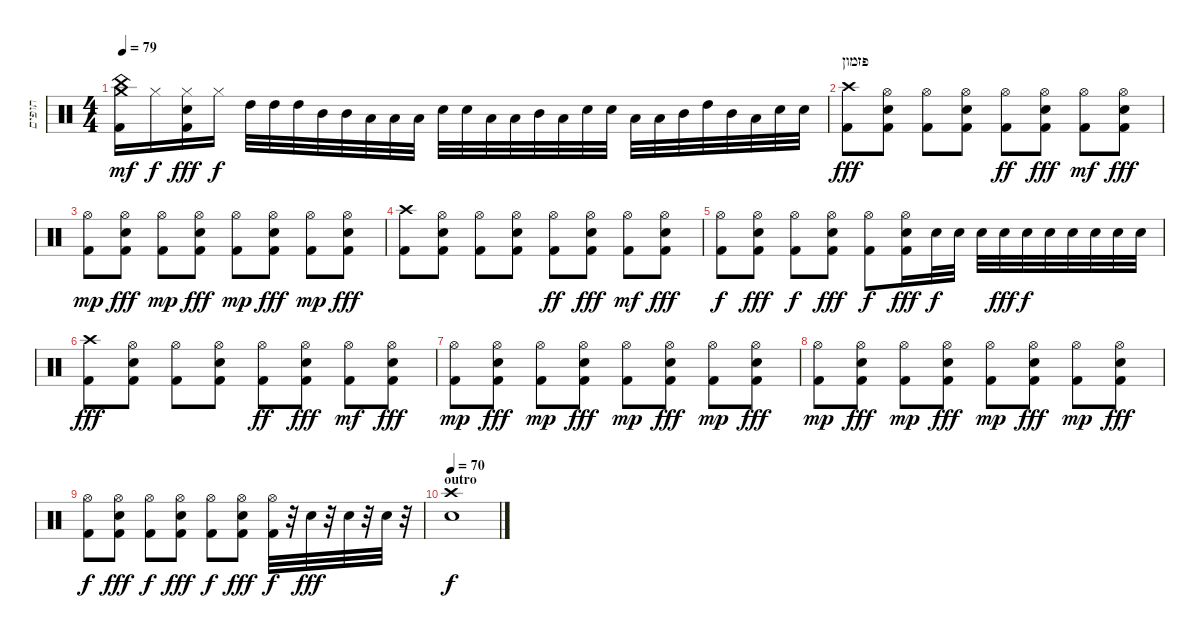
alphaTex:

\track ("תופים" "תופים") {instrument percussion}
\staff {score}
\articulation defaults
\ts (4 4)
\tempo 79
\clef neutral
\ks c
("Crash medium (hit)" "China (hit)" "Kick (hit) 2").16{dy mf} "Hi-Hat (closed)".16{dy f} ("Hi-Hat (closed)" "Snare (hit) 2" "Kick (hit) 2").16{dy fff} "Hi-Hat (closed)".16{dy f} "High Tom (hit)".32 "High Tom (hit)".32 "High Tom (hit)".32 "Mid Tom (hit)".32 "Mid Tom (hit)".32 "Low Tom (hit)".32 "Low Tom (hit)".32 "Low Tom (hit)".32 "Snare (hit) 2".32 "Snare (hit) 2".32 "Low Tom (hit)".32 "Low Tom (hit)".32 "Mid Tom (hit)".32 "Low Tom (hit)".32 "Snare (hit) 2".32 "Snare (hit) 2".32 "Low Tom (hit)".32 "Low Tom (hit)".32 "Mid Tom (hit)".32 "High Tom (hit)".32 "Mid Tom (hit)".32 "Low Tom (hit)".32 "Snare (hit) 2".32 "Snare (hit) 2".32 |
\section ("" "פזמון")
("Crash high (hit)" "Kick (hit) 2").8{dy fff} ("Hi-Hat (open)" "Snare (hit) 2" "Kick (hit) 2").8 ("Hi-Hat (open)" "Kick (hit) 2").8 ("Hi-Hat (open)" "Snare (hit) 2" "Kick (hit) 2").8 ("Hi-Hat (open)" "Kick (hit) 2").8{dy ff} ("Hi-Hat (open)" "Snare (hit) 2" "Kick (hit) 2").8{dy fff} ("Hi-Hat (open)" "Kick (hit) 2").8{dy mf} ("Hi-Hat (open)" "Snare (hit) 2" "Kick (hit) 2").8{dy fff} |
("Hi-Hat (open)" "Kick (hit) 2").8{dy mp} ("Hi-Hat (open)" "Snare (hit) 2" "Kick (hit) 2").8{dy fff} ("Hi-Hat (open)" "Kick (hit) 2").8{dy mp} ("Hi-Hat (open)" "Snare (hit) 2" "Kick (hit) 2").8{dy fff} ("Hi-Hat (open)" "Kick (hit) 2").8{dy mp} ("Hi-Hat (open)" "Snare (hit) 2" "Kick (hit) 2").8{dy fff} ("Hi-Hat (open)" "Kick (hit) 2").8{dy mp} ("Hi-Hat (open)" "Snare (hit) 2" "Kick (hit) 2").8{dy fff} |
("Crash high (hit)" "Kick (hit) 2").8 ("Hi-Hat (open)" "Snare (hit) 2" "Kick (hit) 2").8 ("Hi-Hat (open)" "Kick (hit) 2").8 ("Hi-Hat (open)" "Snare (hit) 2" "Kick (hit) 2").8 ("Hi-Hat (open)" "Kick (hit) 2").8{dy ff} ("Hi-Hat (open)" "Snare (hit) 2" "Kick (hit) 2").8{dy fff} ("Hi-Hat (open)" "Kick (hit) 2").8{dy mf} ("Hi-Hat (open)" "Snare (hit) 2" "Kick (hit) 2").8{dy fff} |
("Hi-Hat (open)" "Kick (hit) 2").8{dy f} ("Hi-Hat (open)" "Snare (hit) 2" "Kick (hit) 2").8{dy fff} ("Hi-Hat (open)" "Kick (hit) 2").8{dy f} ("Hi-Hat (open)" "Snare (hit) 2" "Kick (hit) 2").8{dy fff} ("Hi-Hat (open)" "Kick (hit) 2").8{dy f} ("Hi-Hat (open)" "Snare (hit) 2" "Kick (hit) 2").16{dy fff} "Snare (hit) 2".32{dy f} "Snare (hit) 2".32 "Snare (hit) 2".32 "Snare (hit) 2".32{dy fff} "Snare (hit) 2".32{dy f} "Snare (hit) 2".32 "Snare (hit) 2".32 "Snare (hit) 2".32 "Snare (hit) 2".32 "Snare (hit) 2".32 |
("Crash high (hit)" "Kick (hit) 2").8{dy fff} ("Hi-Hat (open)" "Snare (hit) 2" "Kick (hit) 2").8 ("Hi-Hat (open)" "Kick (hit) 2").8 ("Hi-Hat (open)" "Snare (hit) 2" "Kick (hit) 2").8 ("Hi-Hat (open)" "Kick (hit) 2").8{dy ff} ("Hi-Hat (open)" "Snare (hit) 2" "Kick (hit) 2").8{dy fff} ("Hi-Hat (open)" "Kick (hit) 2").8{dy mf} ("Hi-Hat (open)" "Snare (hit) 2" "Kick (hit) 2").8{dy fff} |
("Hi-Hat (open)" "Kick (hit) 2").8{dy mp} ("Hi-Hat (open)" "Snare (hit) 2" "Kick (hit) 2").8{dy fff} ("Hi-Hat (open)" "Kick (hit) 2").8{dy mp} ("Hi-Hat (open)" "Snare (hit) 2" "Kick (hit) 2").8{dy fff} ("Hi-Hat (open)" "Kick (hit) 2").8{dy mp} ("Hi-Hat (open)" "Snare (hit) 2" "Kick (hit) 2").8{dy fff} ("Hi-Hat (open)" "Kick (hit) 2").8{dy mp} ("Hi-Hat (open)" "Snare (hit) 2" "Kick (hit) 2").8{dy fff} |
("Hi-Hat (open)" "Kick (hit) 2").8{dy mp} ("Hi-Hat (open)" "Snare (hit) 2" "Kick (hit) 2").8{dy fff} ("Hi-Hat (open)" "Kick (hit) 2").8{dy mp} ("Hi-Hat (open)" "Snare (hit) 2" "Kick (hit) 2").8{dy fff} ("Hi-Hat (open)" "Kick (hit) 2").8{dy mp} ("Hi-Hat (open)" "Snare (hit) 2" "Kick (hit) 2").8{dy fff} ("Hi-Hat (open)" "Kick (hit) 2").8{dy mp} ("Hi-Hat (open)" "Snare (hit) 2" "Kick (hit) 2").8{dy fff} |
("Hi-Hat (open)" "Kick (hit) 2").8{dy f} ("Hi-Hat (open)" "Snare (hit) 2" "Kick (hit) 2").8{dy fff} ("Hi-Hat (open)" "Kick (hit) 2").8{dy f} ("Hi-Hat (open)" "Snare (hit) 2" "Kick (hit) 2").8{dy fff} ("Hi-Hat (open)" "Kick (hit) 2").8{dy f} ("Hi-Hat (open)" "Snare (hit) 2" "Kick (hit) 2").8{dy fff} ("Hi-Hat (open)" "Kick (hit) 2").32{dy f} r.32 "Snare (hit) 2".32{dy fff} r.32 "Snare (hit) 2".32 r.32 "Snare (hit) 2".32 r.32 |
\section ("" "outro")
\tempo 70
("Snare (hit) 2" "Crash high (hit)").1{dy f}
